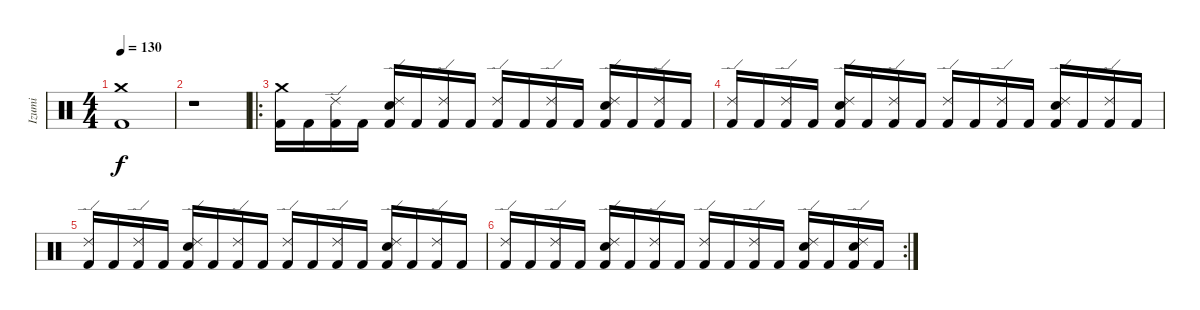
\track ("Izumi" "Izumi") {instrument percussion}
\staff {score}
\articulation defaults
\ts (4 4)
\tempo 130
\clef neutral
\ks c
("Kick (hit) 2" "Crash medium (hit)").1{dy f} |
r.1 |
\ro
("Kick (hit) 2" "Crash medium (hit)").16 "Kick (hit) 2".16 ("Kick (hit) 2" "Ride (edge) 2").16 "Kick (hit) 2".16 ("Kick (hit) 2" "Snare (hit) 2" "Ride (edge) 2").16 "Kick (hit) 2".16 ("Kick (hit) 2" "Ride (edge) 2").16 "Kick (hit) 2".16 ("Kick (hit) 2" "Ride (edge) 2").16 "Kick (hit) 2".16 ("Kick (hit) 2" "Ride (edge) 2").16 "Kick (hit) 2".16 ("Kick (hit) 2" "Snare (hit) 2" "Ride (edge) 2").16 "Kick (hit) 2".16 ("Kick (hit) 2" "Ride (edge) 2").16 "Kick (hit) 2".16 |
("Kick (hit) 2" "Ride (edge) 2").16 "Kick (hit) 2".16 ("Kick (hit) 2" "Ride (edge) 2").16 "Kick (hit) 2".16 ("Kick (hit) 2" "Snare (hit) 2" "Ride (edge) 2").16 "Kick (hit) 2".16 ("Kick (hit) 2" "Ride (edge) 2").16 "Kick (hit) 2".16 ("Kick (hit) 2" "Ride (edge) 2").16 "Kick (hit) 2".16 ("Kick (hit) 2" "Ride (edge) 2").16 "Kick (hit) 2".16 ("Kick (hit) 2" "Snare (hit) 2" "Ride (edge) 2").16 "Kick (hit) 2".16 ("Kick (hit) 2" "Ride (edge) 2").16 "Kick (hit) 2".16 |
("Kick (hit) 2" "Ride (edge) 2").16 "Kick (hit) 2".16 ("Kick (hit) 2" "Ride (edge) 2").16 "Kick (hit) 2".16 ("Kick (hit) 2" "Snare (hit) 2" "Ride (edge) 2").16 "Kick (hit) 2".16 ("Kick (hit) 2" "Ride (edge) 2").16 "Kick (hit) 2".16 ("Kick (hit) 2" "Ride (edge) 2").16 "Kick (hit) 2".16 ("Kick (hit) 2" "Ride (edge) 2").16 "Kick (hit) 2".16 ("Kick (hit) 2" "Snare (hit) 2" "Ride (edge) 2").16 "Kick (hit) 2".16 ("Kick (hit) 2" "Ride (edge) 2").16 "Kick (hit) 2".16 |
\rc 2
("Kick (hit) 2" "Ride (edge) 2").16 "Kick (hit) 2".16 ("Kick (hit) 2" "Ride (edge) 2").16 "Kick (hit) 2".16 ("Kick (hit) 2" "Snare (hit) 2" "Ride (edge) 2").16 "Kick (hit) 2".16 ("Kick (hit) 2" "Ride (edge) 2").16 "Kick (hit) 2".16 ("Kick (hit) 2" "Ride (edge) 2").16 "Kick (hit) 2".16 ("Kick (hit) 2" "Ride (edge) 2").16 "Kick (hit) 2".16 ("Kick (hit) 2" "Snare (hit) 2" "Ride (edge) 2").16 "Kick (hit) 2".16 ("Kick (hit) 2" "Snare (hit) 2" "Ride (edge) 2").16 "Kick (hit) 2".16
